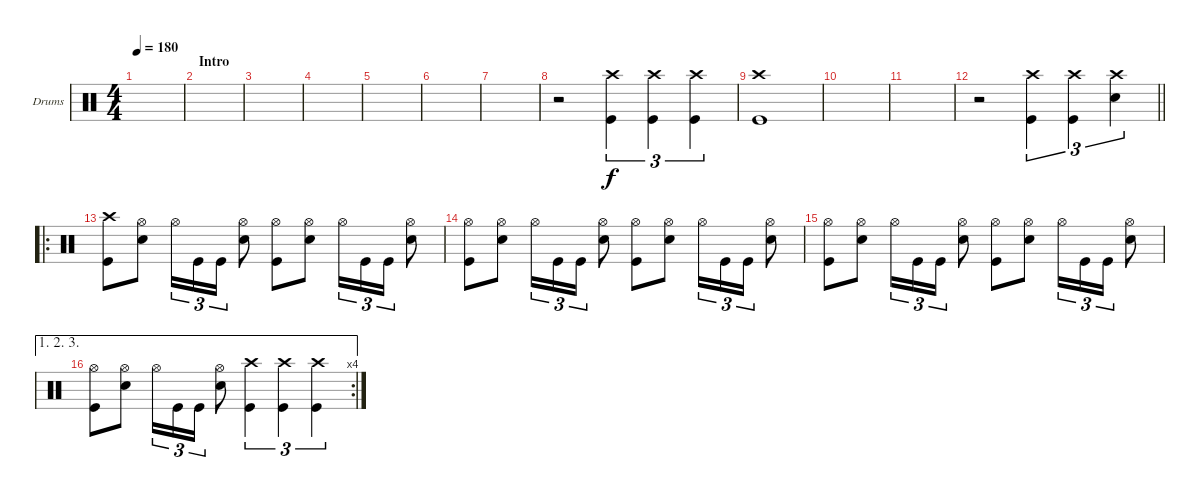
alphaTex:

\bracketExtendMode groupsimilarinstruments
\firstSystemTrackNameOrientation horizontal
\otherSystemsTrackNameOrientation horizontal
\track ("Drums" "Drums") {instrument percussion}
\staff {score}
\articulation defaults
\ts (4 4)
\beaming (8 2 2 2 2)
\tempo 180
\clef neutral
\ks c
|
\section ("" "Intro")
|
|
|
|
|
|
r.2 ("Crash high (hit)" "Kick (hit)").4{tu (3 2)} ("Crash high (hit)" "Kick (hit)").4{tu (3 2)} ("Crash high (hit)" "Kick (hit)").4{tu (3 2)} |
("Crash high (hit)" "Kick (hit)").1 |
|
|
\barLineRight lightlight
r.2 ("Crash high (hit)" "Kick (hit)").4{tu (3 2)} ("Crash high (hit)" "Kick (hit)").4{tu (3 2)} ("Crash high (hit)" "Snare (hit) 2").4{tu (3 2)} |
\ro
("Crash high (hit)" "Kick (hit)").8 ("Hi-Hat (open)" "Snare (hit) 2").8 "Hi-Hat (open)".16{tu (3 2)} "Kick (hit)".16{tu (3 2)} "Kick (hit)".16{tu (3 2)} ("Hi-Hat (open)" "Snare (hit) 2").8 ("Hi-Hat (open)" "Kick (hit)").8 ("Hi-Hat (open)" "Snare (hit) 2").8 "Hi-Hat (open)".16{tu (3 2)} "Kick (hit)".16{tu (3 2)} "Kick (hit)".16{tu (3 2)} ("Hi-Hat (open)" "Snare (hit) 2").8 |
("Hi-Hat (open)" "Kick (hit)").8 ("Hi-Hat (open)" "Snare (hit) 2").8 "Hi-Hat (open)".16{tu (3 2)} "Kick (hit)".16{tu (3 2)} "Kick (hit)".16{tu (3 2)} ("Hi-Hat (open)" "Snare (hit) 2").8 ("Hi-Hat (open)" "Kick (hit)").8 ("Hi-Hat (open)" "Snare (hit) 2").8 "Hi-Hat (open)".16{tu (3 2)} "Kick (hit)".16{tu (3 2)} "Kick (hit)".16{tu (3 2)} ("Hi-Hat (open)" "Snare (hit) 2").8 |
("Hi-Hat (open)" "Kick (hit)").8 ("Hi-Hat (open)" "Snare (hit) 2").8 "Hi-Hat (open)".16{tu (3 2)} "Kick (hit)".16{tu (3 2)} "Kick (hit)".16{tu (3 2)} ("Hi-Hat (open)" "Snare (hit) 2").8 ("Hi-Hat (open)" "Kick (hit)").8 ("Hi-Hat (open)" "Snare (hit) 2").8 "Hi-Hat (open)".16{tu (3 2)} "Kick (hit)".16{tu (3 2)} "Kick (hit)".16{tu (3 2)} ("Hi-Hat (open)" "Snare (hit) 2").8 |
\ae (1 2 3)
\rc 4
("Hi-Hat (open)" "Kick (hit)").8 ("Hi-Hat (open)" "Snare (hit) 2").8 "Hi-Hat (open)".16{tu (3 2)} "Kick (hit)".16{tu (3 2)} "Kick (hit)".16{tu (3 2)} ("Hi-Hat (open)" "Snare (hit) 2").8 ("Crash high (hit)" "Kick (hit)").4{tu (3 2)} ("Crash high (hit)" "Kick (hit)").4{tu (3 2)} ("Crash high (hit)" "Kick (hit)").4{tu (3 2)}
